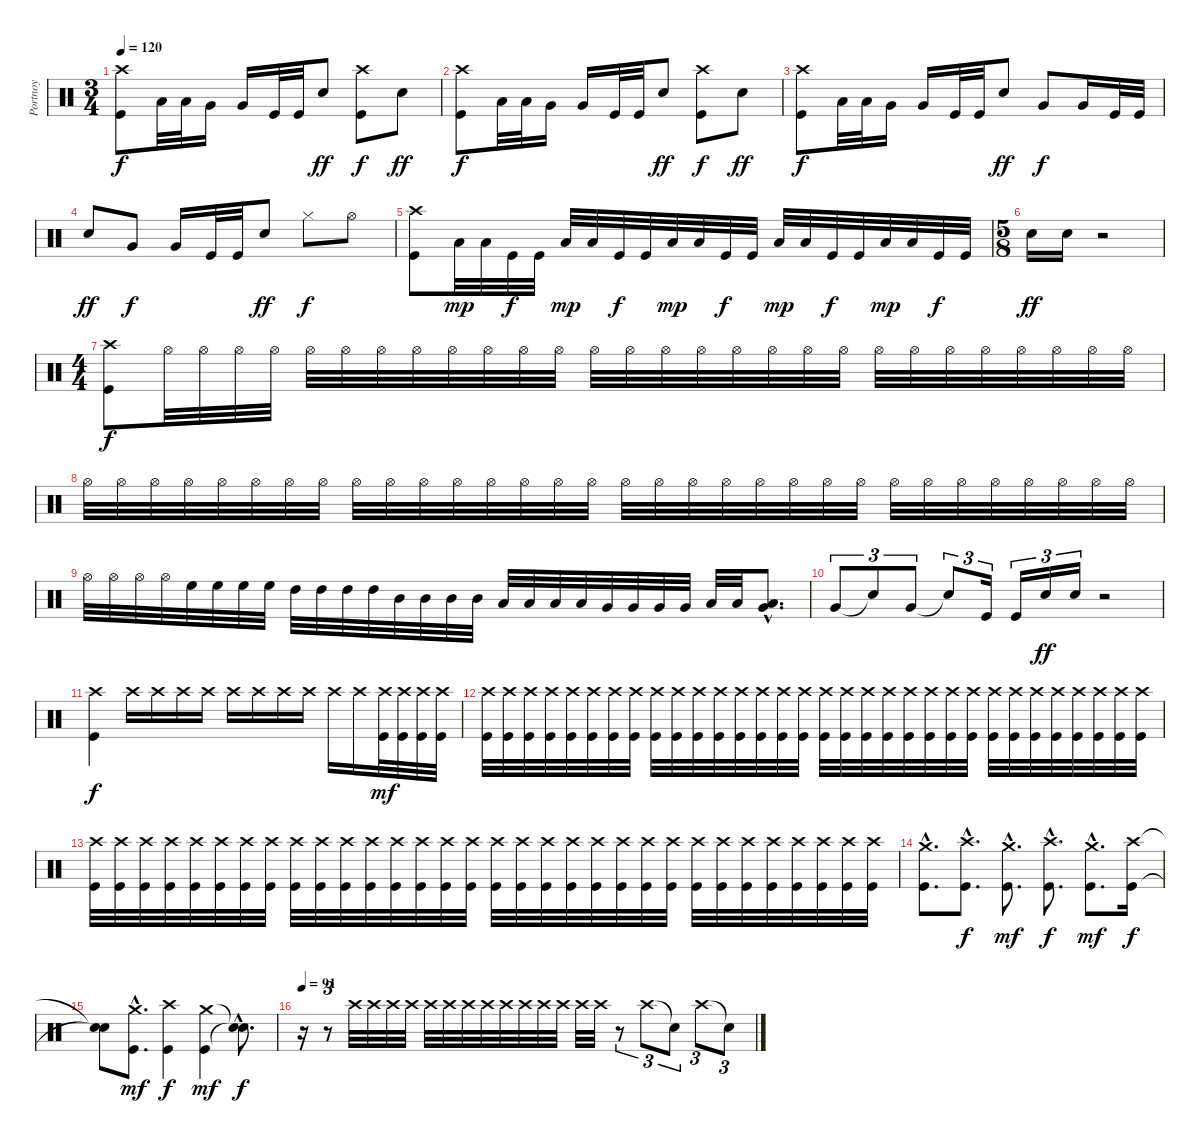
\track ("Portnoy" "Portnoy") {instrument percussion}
\staff {score}
\articulation defaults
\ts (3 4)
\tempo 120
\clef neutral
\ks c
("Crash high (hit)" "Kick (hit)").8{dy f} "Low Tom (hit)".32 "Low Tom (hit)".32 "Very Low Tom (hit)".16 "Very Low Tom (hit)".16 "Kick (hit)".32 "Kick (hit)".32 "Electric Snare (hit)".8{dy ff} ("Crash high (hit)" "Kick (hit)").8{dy f} "Electric Snare (hit)".8{dy ff} |
("Crash high (hit)" "Kick (hit)").8{dy f} "Low Tom (hit)".32 "Low Tom (hit)".32 "Very Low Tom (hit)".16 "Very Low Tom (hit)".16 "Kick (hit)".32 "Kick (hit)".32 "Electric Snare (hit)".8{dy ff} ("Crash high (hit)" "Kick (hit)").8{dy f} "Electric Snare (hit)".8{dy ff} |
("Crash high (hit)" "Kick (hit)").8{dy f} "Low Tom (hit)".32 "Low Tom (hit)".32 "Very Low Tom (hit)".16 "Very Low Tom (hit)".16 "Kick (hit)".32 "Kick (hit)".32 "Electric Snare (hit)".8{dy ff} "Very Low Tom (hit)".8{dy f} "Very Low Tom (hit)".16 "Kick (hit)".32 "Kick (hit)".32 |
"Electric Snare (hit)".8{dy ff} "Very Low Tom (hit)".8{dy f} "Very Low Tom (hit)".16 "Kick (hit)".32 "Kick (hit)".32 "Electric Snare (hit)".8{dy ff} "Hi-Hat (closed)".8{dy f} "Hi-Hat (open)".8 |
("Crash high (hit)" "Kick (hit)").8 "Low Floor Tom (hit)".32{dy mp} "Low Floor Tom (hit)".32 "Kick (hit)".32{dy f} "Kick (hit)".32 "Low Floor Tom (hit)".32{dy mp} "Low Floor Tom (hit)".32 "Kick (hit)".32{dy f} "Kick (hit)".32 "Low Floor Tom (hit)".32{dy mp} "Low Floor Tom (hit)".32 "Kick (hit)".32{dy f} "Kick (hit)".32 "Low Floor Tom (hit)".32{dy mp} "Low Floor Tom (hit)".32 "Kick (hit)".32{dy f} "Kick (hit)".32 "Low Floor Tom (hit)".32{dy mp} "Low Floor Tom (hit)".32 "Kick (hit)".32{dy f} "Kick (hit)".32 |
\ts (5 8)
"Electric Snare (hit)".16{dy ff} "Electric Snare (hit)".16 r.2 |
\ts (4 4)
("Crash high (hit)" "Kick (hit)").8{dy f} "Hi-Hat (open)".32 "Hi-Hat (open)".32 "Hi-Hat (open)".32 "Hi-Hat (open)".32 "Hi-Hat (open)".32 "Hi-Hat (open)".32 "Hi-Hat (open)".32 "Hi-Hat (open)".32 "Hi-Hat (open)".32 "Hi-Hat (open)".32 "Hi-Hat (open)".32 "Hi-Hat (open)".32 "Hi-Hat (open)".32 "Hi-Hat (open)".32 "Hi-Hat (open)".32 "Hi-Hat (open)".32 "Hi-Hat (open)".32 "Hi-Hat (open)".32 "Hi-Hat (open)".32 "Hi-Hat (open)".32 "Hi-Hat (open)".32 "Hi-Hat (open)".32 "Hi-Hat (open)".32 "Hi-Hat (open)".32 "Hi-Hat (open)".32 "Hi-Hat (open)".32 "Hi-Hat (open)".32 "Hi-Hat (open)".32 |
"Hi-Hat (open)".32 "Hi-Hat (open)".32 "Hi-Hat (open)".32 "Hi-Hat (open)".32 "Hi-Hat (open)".32 "Hi-Hat (open)".32 "Hi-Hat (open)".32 "Hi-Hat (open)".32 "Hi-Hat (open)".32 "Hi-Hat (open)".32 "Hi-Hat (open)".32 "Hi-Hat (open)".32 "Hi-Hat (open)".32 "Hi-Hat (open)".32 "Hi-Hat (open)".32 "Hi-Hat (open)".32 "Hi-Hat (open)".32 "Hi-Hat (open)".32 "Hi-Hat (open)".32 "Hi-Hat (open)".32 "Hi-Hat (open)".32 "Hi-Hat (open)".32 "Hi-Hat (open)".32 "Hi-Hat (open)".32 "Hi-Hat (open)".32 "Hi-Hat (open)".32 "Hi-Hat (open)".32 "Hi-Hat (open)".32 "Hi-Hat (open)".32 "Hi-Hat (open)".32 "Hi-Hat (open)".32 "Hi-Hat (open)".32 |
"Hi-Hat (open)".32 "Hi-Hat (open)".32 "Hi-Hat (open)".32 "Hi-Hat (open)".32 "High Floor Tom (hit)".32 "High Floor Tom (hit)".32 "High Floor Tom (hit)".32 "High Floor Tom (hit)".32 "High Tom (hit)".32 "High Tom (hit)".32 "High Tom (hit)".32 "High Tom (hit)".32 "Mid Tom (hit)".32 "Mid Tom (hit)".32 "Mid Tom (hit)".32 "Mid Tom (hit)".32 "Low Tom (hit)".32 "Low Tom (hit)".32 "Low Tom (hit)".32 "Low Tom (hit)".32 "Very Low Tom (hit)".32 "Very Low Tom (hit)".32 "Very Low Tom (hit)".32 "Very Low Tom (hit)".32 "Low Floor Tom (hit)".32 "Low Floor Tom (hit)".32 ("Low Floor Tom (hit)"{hac} "Very Low Tom (hit)"{hac}).8{d} |
"Very Low Tom (hit)".8{tu (3 2)} "Snare (hit)"{t}.8{tu (3 2)} "Very Low Tom (hit)".8{tu (3 2)} "Snare (hit)"{t}.8{tu (3 2)} "Kick (hit)".16{tu (3 2)} "Kick (hit)".16{tu (3 2)} "Electric Snare (hit)".16{tu (3 2) dy ff} "Electric Snare (hit)".16{tu (3 2)} r.2 |
("Crash high (hit)" "Kick (hit)").4{dy f} "Crash high (hit)".16 "Crash high (hit)".16 "Crash high (hit)".16 "Crash high (hit)".16 "Crash high (hit)".16 "Crash high (hit)".16 "Crash high (hit)".16 "Crash high (hit)".16 "Crash high (hit)".16 "Crash high (hit)".16 ("Crash high (hit)" "Kick (hit)").32{dy mf} ("Crash high (hit)" "Kick (hit)").32 ("Crash high (hit)" "Kick (hit)").32 ("Crash high (hit)" "Kick (hit)").32 |
("Crash high (hit)" "Kick (hit)").32 ("Crash high (hit)" "Kick (hit)").32 ("Crash high (hit)" "Kick (hit)").32 ("Crash high (hit)" "Kick (hit)").32 ("Crash high (hit)" "Kick (hit)").32 ("Crash high (hit)" "Kick (hit)").32 ("Crash high (hit)" "Kick (hit)").32 ("Crash high (hit)" "Kick (hit)").32 ("Crash high (hit)" "Kick (hit)").32 ("Crash high (hit)" "Kick (hit)").32 ("Crash high (hit)" "Kick (hit)").32 ("Crash high (hit)" "Kick (hit)").32 ("Crash high (hit)" "Kick (hit)").32 ("Crash high (hit)" "Kick (hit)").32 ("Crash high (hit)" "Kick (hit)").32 ("Crash high (hit)" "Kick (hit)").32 ("Crash high (hit)" "Kick (hit)").32 ("Crash high (hit)" "Kick (hit)").32 ("Crash high (hit)" "Kick (hit)").32 ("Crash high (hit)" "Kick (hit)").32 ("Crash high (hit)" "Kick (hit)").32 ("Crash high (hit)" "Kick (hit)").32 ("Crash high (hit)" "Kick (hit)").32 ("Crash high (hit)" "Kick (hit)").32 ("Crash high (hit)" "Kick (hit)").32 ("Crash high (hit)" "Kick (hit)").32 ("Crash high (hit)" "Kick (hit)").32 ("Crash high (hit)" "Kick (hit)").32 ("Crash high (hit)" "Kick (hit)").32 ("Crash high (hit)" "Kick (hit)").32 ("Crash high (hit)" "Kick (hit)").32 ("Crash high (hit)" "Kick (hit)").32 |
("Crash high (hit)" "Kick (hit)").32 ("Crash high (hit)" "Kick (hit)").32 ("Crash high (hit)" "Kick (hit)").32 ("Crash high (hit)" "Kick (hit)").32 ("Crash high (hit)" "Kick (hit)").32 ("Crash high (hit)" "Kick (hit)").32 ("Crash high (hit)" "Kick (hit)").32 ("Crash high (hit)" "Kick (hit)").32 ("Crash high (hit)" "Kick (hit)").32 ("Crash high (hit)" "Kick (hit)").32 ("Crash high (hit)" "Kick (hit)").32 ("Crash high (hit)" "Kick (hit)").32 ("Crash high (hit)" "Kick (hit)").32 ("Crash high (hit)" "Kick (hit)").32 ("Crash high (hit)" "Kick (hit)").32 ("Crash high (hit)" "Kick (hit)").32 ("Crash high (hit)" "Kick (hit)").32 ("Crash high (hit)" "Kick (hit)").32 ("Crash high (hit)" "Kick (hit)").32 ("Crash high (hit)" "Kick (hit)").32 ("Crash high (hit)" "Kick (hit)").32 ("Crash high (hit)" "Kick (hit)").32 ("Crash high (hit)" "Kick (hit)").32 ("Crash high (hit)" "Kick (hit)").32 ("Crash high (hit)" "Kick (hit)").32 ("Crash high (hit)" "Kick (hit)").32 ("Crash high (hit)" "Kick (hit)").32 ("Crash high (hit)" "Kick (hit)").32 ("Crash high (hit)" "Kick (hit)").32 ("Crash high (hit)" "Kick (hit)").32 ("Crash high (hit)" "Kick (hit)").32 ("Crash high (hit)" "Kick (hit)").32 |
("Crash medium (hit)"{hac} "Kick (hit)"{hac}).8{d} ("Crash high (hit)"{hac} "Kick (hit)"{hac}).8{d dy f} ("Crash medium (hit)"{hac} "Kick (hit)"{hac}).8{d dy mf} ("Crash high (hit)"{hac} "Kick (hit)"{hac}).8{d dy f} ("Crash medium (hit)"{hac} "Kick (hit)"{hac}).8{d dy mf} ("Crash high (hit)" "Kick (hit)").16{dy f} |
("Snare (hit)"{t} "Snare (hit)"{t}).8 ("Crash medium (hit)"{hac} "Kick (hit)"{hac}).8{d dy mf} ("Crash high (hit)" "Kick (hit)").4{dy f} ("Crash medium (hit)" "Kick (hit)").4{dy mf} ("Snare (hit)"{hac t} "Snare (hit)"{hac t}).8{d dy f} |
\tempo 91
r.16 r.8{tu (3 2)} "Crash high (hit)".32 "Crash high (hit)".32 "Crash high (hit)".32 "Crash high (hit)".32 "Crash high (hit)".32 "Crash high (hit)".32 "Crash high (hit)".32 "Crash high (hit)".32 "Crash high (hit)".32 "Crash high (hit)".32 "Crash high (hit)".32 "Crash high (hit)".32 "Crash high (hit)".32 "Crash high (hit)".32 r.8{tu (3 2)} "Crash high (hit)".8{tu (3 2)} "Snare (hit)"{t}.8{tu (3 2)} "Crash high (hit)".8{tu (3 2)} "Snare (hit)"{t}.8{tu (3 2)}
